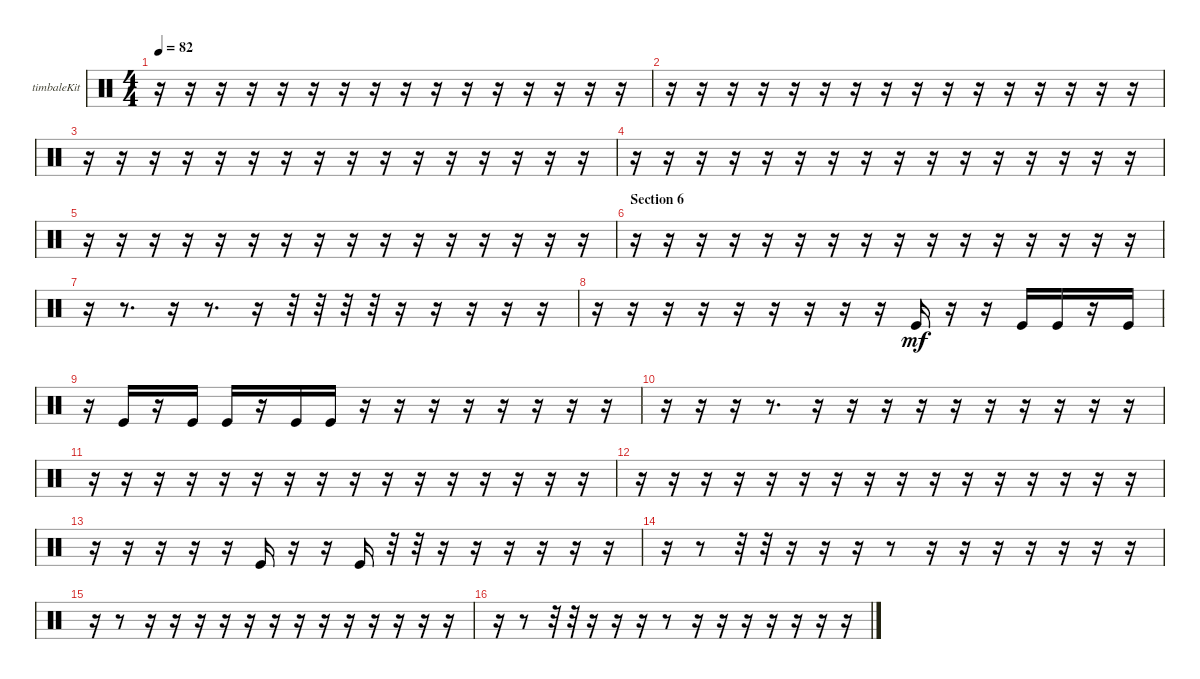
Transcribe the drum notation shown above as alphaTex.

\bracketExtendMode groupsimilarinstruments
\firstSystemTrackNameOrientation horizontal
\otherSystemsTrackNameOrientation horizontal
\track ("Timbale" "timbaleKit") {instrument percussion}
\staff {score}
\articulation defaults
\ts (4 4)
\tempo 82
\clef neutral
\ks aminor
r.16{dy mf} r.16 r.16 r.16 r.16 r.16 r.16 r.16 r.16 r.16 r.16 r.16 r.16 r.16 r.16 r.16 |
r.16 r.16 r.16 r.16 r.16 r.16 r.16 r.16 r.16 r.16 r.16 r.16 r.16 r.16 r.16 r.16 |
r.16 r.16 r.16 r.16 r.16 r.16 r.16 r.16 r.16 r.16 r.16 r.16 r.16 r.16 r.16 r.16 |
r.16 r.16 r.16 r.16 r.16 r.16 r.16 r.16 r.16 r.16 r.16 r.16 r.16 r.16 r.16 r.16 |
r.16 r.16 r.16 r.16 r.16 r.16 r.16 r.16 r.16 r.16 r.16 r.16 r.16 r.16 r.16 r.16 |
\section ("" "Section 6")
r.16 r.16 r.16 r.16 r.16 r.16 r.16 r.16 r.16 r.16 r.16 r.16 r.16 r.16 r.16 r.16 |
r.16 r.8{d} r.16 r.8{d} r.16 r.32 r.32 r.32 r.32 r.16 r.16 r.16 r.16 r.16 |
r.16 r.16 r.16 r.16 r.16 r.16 r.16 r.16 r.16 "Kick (hit)".16 r.16 r.16 "Kick (hit)".16 "Kick (hit)".16 r.16 "Kick (hit)".16 |
r.16 "Kick (hit)".16 r.16 "Kick (hit)".16 "Kick (hit)".16 r.16 "Kick (hit)".16 "Kick (hit)".16 r.16 r.16 r.16 r.16 r.16 r.16 r.16 r.16 |
r.16 r.16 r.16 r.8{d} r.16 r.16 r.16 r.16 r.16 r.16 r.16 r.16 r.16 r.16 |
r.16 r.16 r.16 r.16 r.16 r.16 r.16 r.16 r.16 r.16 r.16 r.16 r.16 r.16 r.16 r.16 |
r.16 r.16 r.16 r.16 r.16 r.16 r.16 r.16 r.16 r.16 r.16 r.16 r.16 r.16 r.16 r.16 |
r.16 r.16 r.16 r.16 r.16 "Kick (hit)".16 r.16 r.16 "Kick (hit)".16 r.32 r.32 r.16 r.16 r.16 r.16 r.16 r.16 |
r.16 r.8 r.32 r.32 r.16 r.16 r.16 r.8 r.16 r.16 r.16 r.16 r.16 r.16 r.16 |
r.16 r.8 r.16 r.16 r.16 r.16 r.16 r.16 r.16 r.16 r.16 r.16 r.16 r.16 r.16 |
r.16 r.8 r.32 r.32 r.16 r.16 r.16 r.8 r.16 r.16 r.16 r.16 r.16 r.16 r.16
